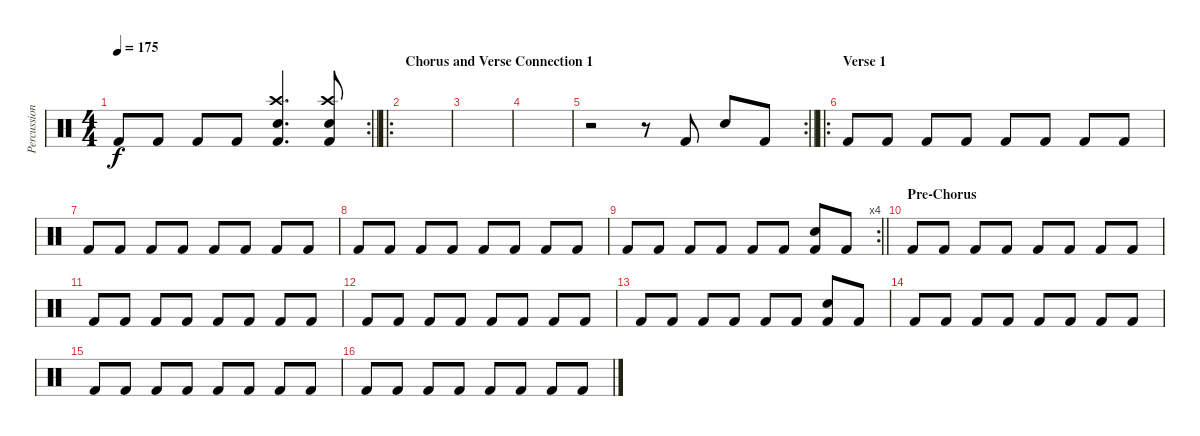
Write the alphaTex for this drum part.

\track ("Percussion" "Percussion") {instrument percussion}
\staff {score}
\articulation defaults
\rc 2
\ts (4 4)
\tempo 175
\clef neutral
\barLineRight lightlight
\ks c "Kick (hit) 2".8{dy f} "Kick (hit) 2".8 "Kick (hit) 2".8 "Kick (hit) 2".8
("Crash high (hit)" "Snare (hit) 2" "Kick (hit) 2").4{d} ("Crash high (hit)" "Snare (hit) 2" "Kick (hit) 2").8 |
\ro
\section ("" "Chorus and Verse Connection 1")
|
|
|
\rc 2
\barLineRight lightlight
r.2 r.8 "Kick (hit) 2".8 "Snare (hit) 2".8 "Kick (hit) 2".8 |
\ro
\section ("" "Verse 1")
"Kick (hit) 2".8 "Kick (hit) 2".8 "Kick (hit) 2".8 "Kick (hit) 2".8 "Kick (hit) 2".8 "Kick (hit) 2".8 "Kick (hit) 2".8 "Kick (hit) 2".8 |
"Kick (hit) 2".8 "Kick (hit) 2".8 "Kick (hit) 2".8 "Kick (hit) 2".8 "Kick (hit) 2".8 "Kick (hit) 2".8 "Kick (hit) 2".8 "Kick (hit) 2".8 |
"Kick (hit) 2".8 "Kick (hit) 2".8 "Kick (hit) 2".8 "Kick (hit) 2".8 "Kick (hit) 2".8 "Kick (hit) 2".8 "Kick (hit) 2".8 "Kick (hit) 2".8 |
\rc 4
\barLineRight lightlight "Kick (hit) 2".8 "Kick (hit) 2".8 "Kick (hit) 2".8 "Kick (hit) 2".8 "Kick (hit) 2".8 "Kick (hit) 2".8
("Snare (hit) 2" "Kick (hit) 2").8 "Kick (hit) 2".8 |
\section ("" "Pre-Chorus")
"Kick (hit) 2".8 "Kick (hit) 2".8 "Kick (hit) 2".8 "Kick (hit) 2".8 "Kick (hit) 2".8 "Kick (hit) 2".8 "Kick (hit) 2".8 "Kick (hit) 2".8 |
"Kick (hit) 2".8 "Kick (hit) 2".8 "Kick (hit) 2".8 "Kick (hit) 2".8 "Kick (hit) 2".8 "Kick (hit) 2".8 "Kick (hit) 2".8 "Kick (hit) 2".8 |
"Kick (hit) 2".8 "Kick (hit) 2".8 "Kick (hit) 2".8 "Kick (hit) 2".8 "Kick (hit) 2".8 "Kick (hit) 2".8 "Kick (hit) 2".8 "Kick (hit) 2".8 |
"Kick (hit) 2".8 "Kick (hit) 2".8 "Kick (hit) 2".8 "Kick (hit) 2".8 "Kick (hit) 2".8 "Kick (hit) 2".8 ("Snare (hit) 2" "Kick (hit) 2").8 "Kick (hit) 2".8 |
"Kick (hit) 2".8 "Kick (hit) 2".8 "Kick (hit) 2".8 "Kick (hit) 2".8 "Kick (hit) 2".8 "Kick (hit) 2".8 "Kick (hit) 2".8 "Kick (hit) 2".8 |
"Kick (hit) 2".8 "Kick (hit) 2".8 "Kick (hit) 2".8 "Kick (hit) 2".8 "Kick (hit) 2".8 "Kick (hit) 2".8 "Kick (hit) 2".8 "Kick (hit) 2".8 |
"Kick (hit) 2".8 "Kick (hit) 2".8 "Kick (hit) 2".8 "Kick (hit) 2".8 "Kick (hit) 2".8 "Kick (hit) 2".8 "Kick (hit) 2".8 "Kick (hit) 2".8
